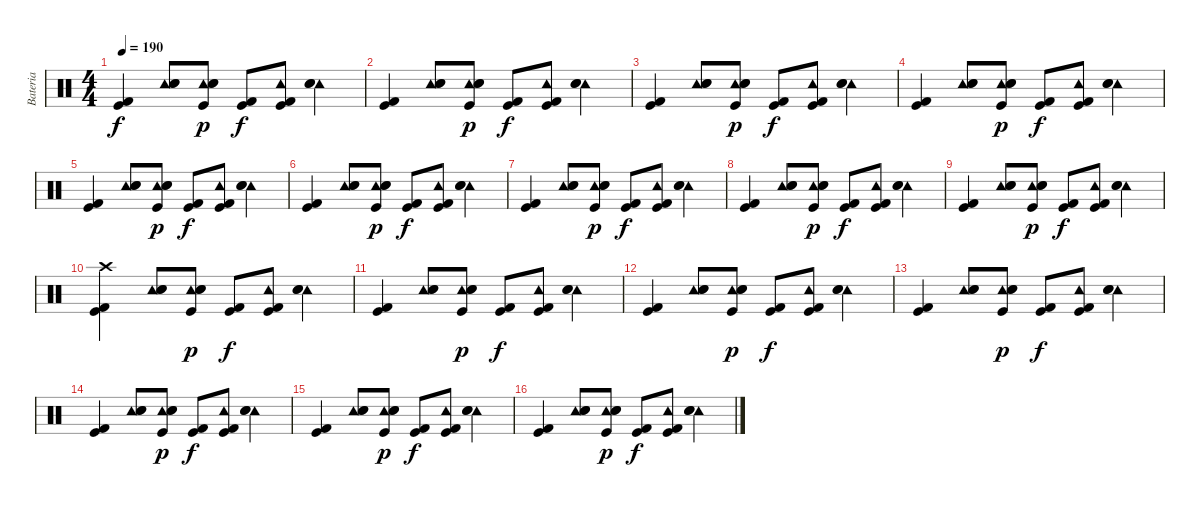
\track ("Bateria" "Bateria") {instrument percussion}
\staff {score}
\articulation defaults
\ts (4 4)
\tempo 190
\clef neutral
\ks c
("Kick (hit) 2" "Kick (hit)").4{dy f} ("Tambourine (hit)" "Snare (hit) 2" "Electric Snare (hit)").8 ("Tambourine (hit)" "Snare (hit) 2" "Electric Snare (hit)" "Kick (hit)").8{dy p} ("Kick (hit) 2" "Kick (hit)").8{dy f} ("Tambourine (hit)" "Kick (hit) 2" "Kick (hit)").8 ("Tambourine (hit)" "Snare (hit) 2" "Electric Snare (hit)").4 |
("Kick (hit) 2" "Kick (hit)").4 ("Tambourine (hit)" "Snare (hit) 2" "Electric Snare (hit)").8 ("Tambourine (hit)" "Snare (hit) 2" "Electric Snare (hit)" "Kick (hit)").8{dy p} ("Kick (hit) 2" "Kick (hit)").8{dy f} ("Tambourine (hit)" "Kick (hit) 2" "Kick (hit)").8 ("Tambourine (hit)" "Snare (hit) 2" "Electric Snare (hit)").4 |
("Kick (hit) 2" "Kick (hit)").4 ("Tambourine (hit)" "Snare (hit) 2" "Electric Snare (hit)").8 ("Tambourine (hit)" "Snare (hit) 2" "Electric Snare (hit)" "Kick (hit)").8{dy p} ("Kick (hit) 2" "Kick (hit)").8{dy f} ("Tambourine (hit)" "Kick (hit) 2" "Kick (hit)").8 ("Tambourine (hit)" "Snare (hit) 2" "Electric Snare (hit)").4 |
("Kick (hit) 2" "Kick (hit)").4 ("Tambourine (hit)" "Snare (hit) 2" "Electric Snare (hit)").8 ("Tambourine (hit)" "Snare (hit) 2" "Electric Snare (hit)" "Kick (hit)").8{dy p} ("Kick (hit) 2" "Kick (hit)").8{dy f} ("Tambourine (hit)" "Kick (hit) 2" "Kick (hit)").8 ("Tambourine (hit)" "Snare (hit) 2" "Electric Snare (hit)").4 |
("Kick (hit) 2" "Kick (hit)").4 ("Tambourine (hit)" "Snare (hit) 2" "Electric Snare (hit)").8 ("Tambourine (hit)" "Snare (hit) 2" "Electric Snare (hit)" "Kick (hit)").8{dy p} ("Kick (hit) 2" "Kick (hit)").8{dy f} ("Tambourine (hit)" "Kick (hit) 2" "Kick (hit)").8 ("Tambourine (hit)" "Snare (hit) 2" "Electric Snare (hit)").4 |
("Kick (hit) 2" "Kick (hit)").4 ("Tambourine (hit)" "Snare (hit) 2" "Electric Snare (hit)").8 ("Tambourine (hit)" "Snare (hit) 2" "Electric Snare (hit)" "Kick (hit)").8{dy p} ("Kick (hit) 2" "Kick (hit)").8{dy f} ("Tambourine (hit)" "Kick (hit) 2" "Kick (hit)").8 ("Tambourine (hit)" "Snare (hit) 2" "Electric Snare (hit)").4 |
("Kick (hit) 2" "Kick (hit)").4 ("Tambourine (hit)" "Snare (hit) 2" "Electric Snare (hit)").8 ("Tambourine (hit)" "Snare (hit) 2" "Electric Snare (hit)" "Kick (hit)").8{dy p} ("Kick (hit) 2" "Kick (hit)").8{dy f} ("Tambourine (hit)" "Kick (hit) 2" "Kick (hit)").8 ("Tambourine (hit)" "Snare (hit) 2" "Electric Snare (hit)").4 |
("Kick (hit) 2" "Kick (hit)").4 ("Tambourine (hit)" "Snare (hit) 2" "Electric Snare (hit)").8 ("Tambourine (hit)" "Snare (hit) 2" "Electric Snare (hit)" "Kick (hit)").8{dy p} ("Kick (hit) 2" "Kick (hit)").8{dy f} ("Tambourine (hit)" "Kick (hit) 2" "Kick (hit)").8 ("Tambourine (hit)" "Snare (hit) 2" "Electric Snare (hit)").4 |
("Kick (hit) 2" "Kick (hit)").4 ("Tambourine (hit)" "Snare (hit) 2" "Electric Snare (hit)").8 ("Tambourine (hit)" "Snare (hit) 2" "Electric Snare (hit)" "Kick (hit)").8{dy p} ("Kick (hit) 2" "Kick (hit)").8{dy f} ("Tambourine (hit)" "Kick (hit) 2" "Kick (hit)").8 ("Tambourine (hit)" "Snare (hit) 2" "Electric Snare (hit)").4 |
("Crash high (hit)" "Kick (hit) 2" "Kick (hit)").4 ("Tambourine (hit)" "Snare (hit) 2" "Electric Snare (hit)").8 ("Tambourine (hit)" "Snare (hit) 2" "Electric Snare (hit)" "Kick (hit)").8{dy p} ("Kick (hit) 2" "Kick (hit)").8{dy f} ("Tambourine (hit)" "Kick (hit) 2" "Kick (hit)").8 ("Tambourine (hit)" "Snare (hit) 2" "Electric Snare (hit)").4 |
("Kick (hit) 2" "Kick (hit)").4 ("Tambourine (hit)" "Snare (hit) 2" "Electric Snare (hit)").8 ("Tambourine (hit)" "Snare (hit) 2" "Electric Snare (hit)" "Kick (hit)").8{dy p} ("Kick (hit) 2" "Kick (hit)").8{dy f} ("Tambourine (hit)" "Kick (hit) 2" "Kick (hit)").8 ("Tambourine (hit)" "Snare (hit) 2" "Electric Snare (hit)").4 |
("Kick (hit) 2" "Kick (hit)").4 ("Tambourine (hit)" "Snare (hit) 2" "Electric Snare (hit)").8 ("Tambourine (hit)" "Snare (hit) 2" "Electric Snare (hit)" "Kick (hit)").8{dy p} ("Kick (hit) 2" "Kick (hit)").8{dy f} ("Tambourine (hit)" "Kick (hit) 2" "Kick (hit)").8 ("Tambourine (hit)" "Snare (hit) 2" "Electric Snare (hit)").4 |
("Kick (hit) 2" "Kick (hit)").4 ("Tambourine (hit)" "Snare (hit) 2" "Electric Snare (hit)").8 ("Tambourine (hit)" "Snare (hit) 2" "Electric Snare (hit)" "Kick (hit)").8{dy p} ("Kick (hit) 2" "Kick (hit)").8{dy f} ("Tambourine (hit)" "Kick (hit) 2" "Kick (hit)").8 ("Tambourine (hit)" "Snare (hit) 2" "Electric Snare (hit)").4 |
("Kick (hit) 2" "Kick (hit)").4 ("Tambourine (hit)" "Snare (hit) 2" "Electric Snare (hit)").8 ("Tambourine (hit)" "Snare (hit) 2" "Electric Snare (hit)" "Kick (hit)").8{dy p} ("Kick (hit) 2" "Kick (hit)").8{dy f} ("Tambourine (hit)" "Kick (hit) 2" "Kick (hit)").8 ("Tambourine (hit)" "Snare (hit) 2" "Electric Snare (hit)").4 |
("Kick (hit) 2" "Kick (hit)").4 ("Tambourine (hit)" "Snare (hit) 2" "Electric Snare (hit)").8 ("Tambourine (hit)" "Snare (hit) 2" "Electric Snare (hit)" "Kick (hit)").8{dy p} ("Kick (hit) 2" "Kick (hit)").8{dy f} ("Tambourine (hit)" "Kick (hit) 2" "Kick (hit)").8 ("Tambourine (hit)" "Snare (hit) 2" "Electric Snare (hit)").4 |
("Kick (hit) 2" "Kick (hit)").4 ("Tambourine (hit)" "Snare (hit) 2" "Electric Snare (hit)").8 ("Tambourine (hit)" "Snare (hit) 2" "Electric Snare (hit)" "Kick (hit)").8{dy p} ("Kick (hit) 2" "Kick (hit)").8{dy f} ("Tambourine (hit)" "Kick (hit) 2" "Kick (hit)").8 ("Tambourine (hit)" "Snare (hit) 2" "Electric Snare (hit)").4
